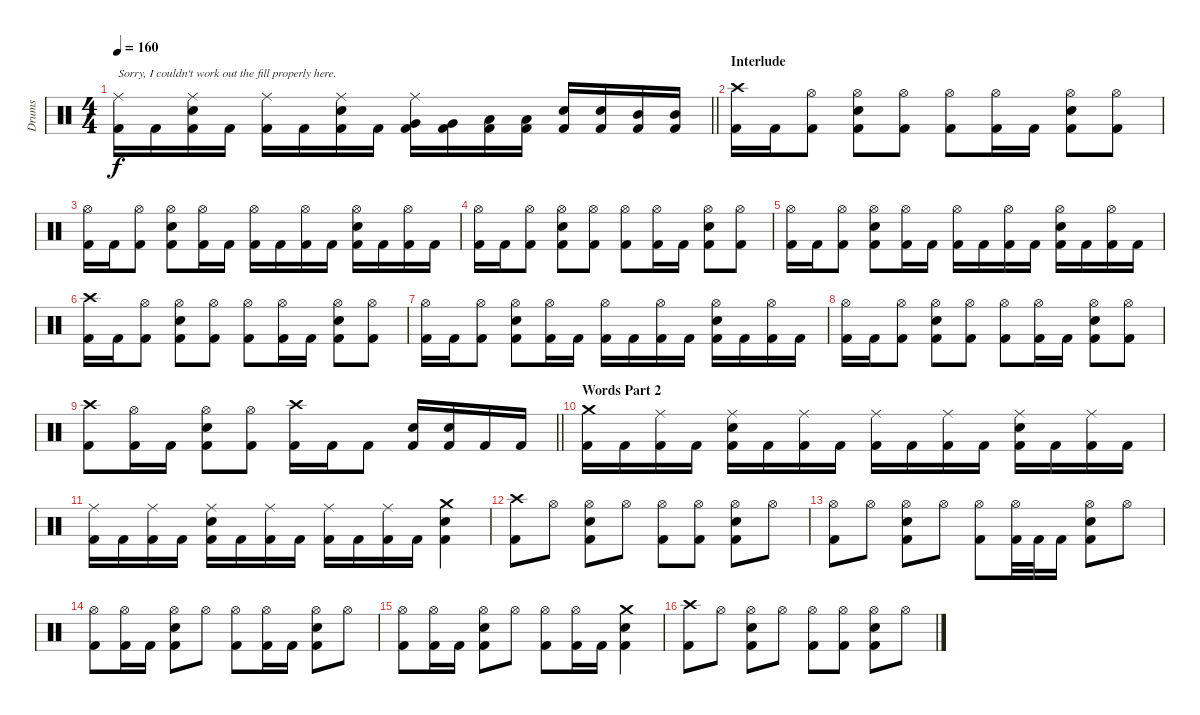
\track ("Drums" "Drums") {instrument percussion}
\staff {score}
\articulation defaults
\ts (4 4)
\tempo 160
\clef neutral
\barLineRight lightlight
\ks c
("Ride (middle)" "Kick (hit) 2").16{txt "Sorry, I couldn't work out the fill properly here." dy f} "Kick (hit) 2".16 ("Ride (middle)" "Snare (hit) 2" "Kick (hit) 2").16 "Kick (hit) 2".16 ("Ride (middle)" "Kick (hit) 2").16 "Kick (hit) 2".16 ("Ride (middle)" "Snare (hit) 2" "Kick (hit) 2").16 "Kick (hit) 2".16 ("Ride (middle)" "Very Low Tom (hit)" "Kick (hit) 2").16 ("Very Low Tom (hit)" "Kick (hit) 2").16 ("Low Tom (hit)" "Kick (hit) 2").16 ("Low Tom (hit)" "Kick (hit) 2").16 ("Snare (hit) 2" "Kick (hit) 2").16 ("Snare (hit) 2" "Kick (hit) 2").16 ("Mid Tom (hit)" "Kick (hit) 2").16 ("Mid Tom (hit)" "Kick (hit) 2").16 |
\section ("" "Interlude")
("Crash high (hit)" "Kick (hit) 2").16 "Kick (hit) 2".16 ("Hi-Hat (open)" "Kick (hit) 2").8 ("Hi-Hat (open)" "Snare (hit) 2" "Kick (hit) 2").8 ("Hi-Hat (open)" "Kick (hit) 2").8 ("Hi-Hat (open)" "Kick (hit) 2").8 ("Hi-Hat (open)" "Kick (hit) 2").16 "Kick (hit) 2".16 ("Hi-Hat (open)" "Snare (hit) 2" "Kick (hit) 2").8 ("Hi-Hat (open)" "Kick (hit) 2").8 |
("Hi-Hat (open)" "Kick (hit) 2").16 "Kick (hit) 2".16 ("Hi-Hat (open)" "Kick (hit) 2").8 ("Hi-Hat (open)" "Snare (hit) 2" "Kick (hit) 2").8 ("Hi-Hat (open)" "Kick (hit) 2").16 "Kick (hit) 2".16 ("Hi-Hat (open)" "Kick (hit) 2").16 "Kick (hit) 2".16 ("Hi-Hat (open)" "Kick (hit) 2").16 "Kick (hit) 2".16 ("Hi-Hat (open)" "Snare (hit) 2" "Kick (hit) 2").16 "Kick (hit) 2".16 ("Hi-Hat (open)" "Kick (hit) 2").16 "Kick (hit) 2".16 |
("Hi-Hat (open)" "Kick (hit) 2").16 "Kick (hit) 2".16 ("Hi-Hat (open)" "Kick (hit) 2").8 ("Hi-Hat (open)" "Snare (hit) 2" "Kick (hit) 2").8 ("Hi-Hat (open)" "Kick (hit) 2").8 ("Hi-Hat (open)" "Kick (hit) 2").8 ("Hi-Hat (open)" "Kick (hit) 2").16 "Kick (hit) 2".16 ("Hi-Hat (open)" "Snare (hit) 2" "Kick (hit) 2").8 ("Hi-Hat (open)" "Kick (hit) 2").8 |
("Hi-Hat (open)" "Kick (hit) 2").16 "Kick (hit) 2".16 ("Hi-Hat (open)" "Kick (hit) 2").8 ("Hi-Hat (open)" "Snare (hit) 2" "Kick (hit) 2").8 ("Hi-Hat (open)" "Kick (hit) 2").16 "Kick (hit) 2".16 ("Hi-Hat (open)" "Kick (hit) 2").16 "Kick (hit) 2".16 ("Hi-Hat (open)" "Kick (hit) 2").16 "Kick (hit) 2".16 ("Hi-Hat (open)" "Snare (hit) 2" "Kick (hit) 2").16 "Kick (hit) 2".16 ("Hi-Hat (open)" "Kick (hit) 2").16 "Kick (hit) 2".16 |
("Crash high (hit)" "Kick (hit) 2").16 "Kick (hit) 2".16 ("Hi-Hat (open)" "Kick (hit) 2").8 ("Hi-Hat (open)" "Snare (hit) 2" "Kick (hit) 2").8 ("Hi-Hat (open)" "Kick (hit) 2").8 ("Hi-Hat (open)" "Kick (hit) 2").8 ("Hi-Hat (open)" "Kick (hit) 2").16 "Kick (hit) 2".16 ("Hi-Hat (open)" "Snare (hit) 2" "Kick (hit) 2").8 ("Hi-Hat (open)" "Kick (hit) 2").8 |
("Hi-Hat (open)" "Kick (hit) 2").16 "Kick (hit) 2".16 ("Hi-Hat (open)" "Kick (hit) 2").8 ("Hi-Hat (open)" "Snare (hit) 2" "Kick (hit) 2").8 ("Hi-Hat (open)" "Kick (hit) 2").16 "Kick (hit) 2".16 ("Hi-Hat (open)" "Kick (hit) 2").16 "Kick (hit) 2".16 ("Hi-Hat (open)" "Kick (hit) 2").16 "Kick (hit) 2".16 ("Hi-Hat (open)" "Snare (hit) 2" "Kick (hit) 2").16 "Kick (hit) 2".16 ("Hi-Hat (open)" "Kick (hit) 2").16 "Kick (hit) 2".16 |
("Hi-Hat (open)" "Kick (hit) 2").16 "Kick (hit) 2".16 ("Hi-Hat (open)" "Kick (hit) 2").8 ("Hi-Hat (open)" "Snare (hit) 2" "Kick (hit) 2").8 ("Hi-Hat (open)" "Kick (hit) 2").8 ("Hi-Hat (open)" "Kick (hit) 2").8 ("Hi-Hat (open)" "Kick (hit) 2").16 "Kick (hit) 2".16 ("Hi-Hat (open)" "Snare (hit) 2" "Kick (hit) 2").8 ("Hi-Hat (open)" "Kick (hit) 2").8 |
\barLineRight lightlight
("Crash high (hit)" "Kick (hit) 2").8 ("Hi-Hat (open)" "Kick (hit) 2").16 "Kick (hit) 2".16 ("Hi-Hat (open)" "Snare (hit) 2" "Kick (hit) 2").8 ("Hi-Hat (open)" "Kick (hit) 2").8 ("Crash high (hit)" "Kick (hit) 2").16 "Kick (hit) 2".16 "Kick (hit) 2".8 ("Snare (hit) 2" "Kick (hit) 2").16 ("Snare (hit) 2" "Kick (hit) 2").16 "Kick (hit) 2".16 "Kick (hit) 2".16 |
\section ("" "Words Part 2")
("Crash medium (hit)" "Kick (hit) 2").16 "Kick (hit) 2".16 ("Ride (middle)" "Kick (hit) 2").16 "Kick (hit) 2".16 ("Ride (middle)" "Snare (hit) 2" "Kick (hit) 2").16 "Kick (hit) 2".16 ("Ride (middle)" "Kick (hit) 2").16 "Kick (hit) 2".16 ("Ride (middle)" "Kick (hit) 2").16 "Kick (hit) 2".16 ("Ride (middle)" "Kick (hit) 2").16 "Kick (hit) 2".16 ("Ride (middle)" "Snare (hit) 2" "Kick (hit) 2").16 "Kick (hit) 2".16 ("Ride (middle)" "Kick (hit) 2").16 "Kick (hit) 2".16 |
("Ride (middle)" "Kick (hit) 2").16 "Kick (hit) 2".16 ("Ride (middle)" "Kick (hit) 2").16 "Kick (hit) 2".16 ("Ride (middle)" "Snare (hit) 2" "Kick (hit) 2").16 "Kick (hit) 2".16 ("Ride (middle)" "Kick (hit) 2").16 "Kick (hit) 2".16 ("Ride (middle)" "Kick (hit) 2").16 "Kick (hit) 2".16 ("Ride (middle)" "Kick (hit) 2").16 "Kick (hit) 2".16 ("Crash medium (hit)" "Snare (hit) 2" "Kick (hit) 2").4 |
("Crash high (hit)" "Kick (hit) 2").8 "Hi-Hat (open)".8 ("Hi-Hat (open)" "Snare (hit) 2" "Kick (hit) 2").8 "Hi-Hat (open)".8 ("Hi-Hat (open)" "Kick (hit) 2").8 ("Hi-Hat (open)" "Kick (hit) 2").8 ("Hi-Hat (open)" "Snare (hit) 2" "Kick (hit) 2").8 "Hi-Hat (open)".8 |
("Hi-Hat (open)" "Kick (hit) 2").8 "Hi-Hat (open)".8 ("Hi-Hat (open)" "Snare (hit) 2" "Kick (hit) 2").8 "Hi-Hat (open)".8 ("Hi-Hat (open)" "Kick (hit) 2").8 ("Hi-Hat (open)" "Kick (hit) 2").32 "Kick (hit) 2".32 "Kick (hit) 2".16 ("Hi-Hat (open)" "Snare (hit) 2" "Kick (hit) 2").8 "Hi-Hat (open)".8 |
("Hi-Hat (open)" "Kick (hit) 2").8 ("Hi-Hat (open)" "Kick (hit) 2").16 "Kick (hit) 2".16 ("Hi-Hat (open)" "Snare (hit) 2" "Kick (hit) 2").8 "Hi-Hat (open)".8 ("Hi-Hat (open)" "Kick (hit) 2").8 ("Hi-Hat (open)" "Kick (hit) 2").16 "Kick (hit) 2".16 ("Hi-Hat (open)" "Snare (hit) 2" "Kick (hit) 2").8 "Hi-Hat (open)".8 |
("Hi-Hat (open)" "Kick (hit) 2").8 ("Hi-Hat (open)" "Kick (hit) 2").16 "Kick (hit) 2".16 ("Hi-Hat (open)" "Snare (hit) 2" "Kick (hit) 2").8 "Hi-Hat (open)".8 ("Hi-Hat (open)" "Kick (hit) 2").8 ("Hi-Hat (open)" "Kick (hit) 2").16 "Kick (hit) 2".16 ("Crash medium (hit)" "Snare (hit) 2" "Kick (hit) 2").4 |
("Crash high (hit)" "Kick (hit) 2").8 "Hi-Hat (open)".8 ("Hi-Hat (open)" "Snare (hit) 2" "Kick (hit) 2").8 "Hi-Hat (open)".8 ("Hi-Hat (open)" "Kick (hit) 2").8 ("Hi-Hat (open)" "Kick (hit) 2").8 ("Hi-Hat (open)" "Snare (hit) 2" "Kick (hit) 2").8 "Hi-Hat (open)".8
